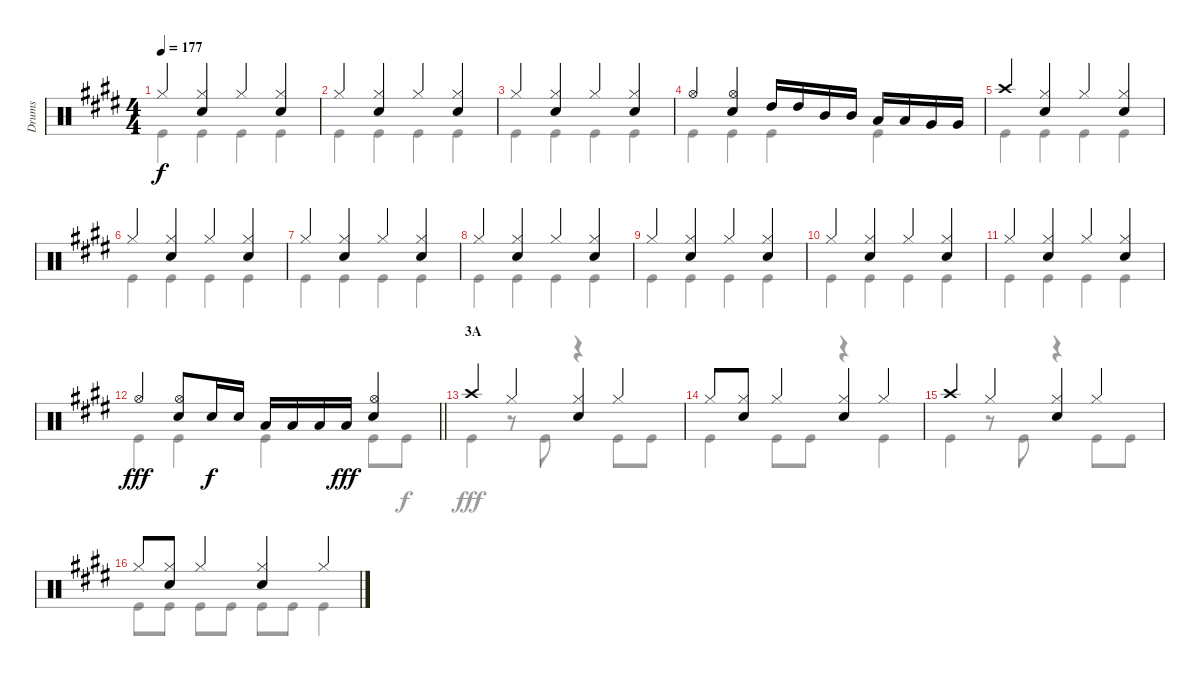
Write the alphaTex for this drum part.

\track ("Drums" "Drums") {instrument percussion}
\staff {score}
\articulation defaults
\voice
\ts (4 4)
\tempo 177
\clef neutral
\ks e "Hi-Hat (closed)".4{dy f}
("Hi-Hat (closed)" "Snare (hit) 2").4 "Hi-Hat (closed)".4 ("Hi-Hat (closed)" "Snare (hit) 2").4 |
"Hi-Hat (closed)".4 ("Hi-Hat (closed)" "Snare (hit) 2").4 "Hi-Hat (closed)".4 ("Hi-Hat (closed)" "Snare (hit) 2").4 |
"Hi-Hat (closed)".4 ("Hi-Hat (closed)" "Snare (hit) 2").4 "Hi-Hat (closed)".4 ("Hi-Hat (closed)" "Snare (hit) 2").4 |
"Hi-Hat (open)".4 ("Hi-Hat (open)" "Snare (hit) 2").4 "High Tom (hit)".16 "High Tom (hit)".16 "Mid Tom (hit)".16 "Mid Tom (hit)".16 "Low Tom (hit)".16 "Low Tom (hit)".16 "Very Low Tom (hit)".16 "Very Low Tom (hit)".16 |
"Crash high (hit)".4 ("Hi-Hat (closed)" "Snare (hit) 2").4 "Hi-Hat (closed)".4 ("Hi-Hat (closed)" "Snare (hit) 2").4 |
"Hi-Hat (closed)".4 ("Hi-Hat (closed)" "Snare (hit) 2").4 "Hi-Hat (closed)".4 ("Hi-Hat (closed)" "Snare (hit) 2").4 |
"Hi-Hat (closed)".4 ("Hi-Hat (closed)" "Snare (hit) 2").4 "Hi-Hat (closed)".4 ("Hi-Hat (closed)" "Snare (hit) 2").4 |
"Hi-Hat (closed)".4 ("Hi-Hat (closed)" "Snare (hit) 2").4 "Hi-Hat (closed)".4 ("Hi-Hat (closed)" "Snare (hit) 2").4 |
"Hi-Hat (closed)".4 ("Hi-Hat (closed)" "Snare (hit) 2").4 "Hi-Hat (closed)".4 ("Hi-Hat (closed)" "Snare (hit) 2").4 |
"Hi-Hat (closed)".4 ("Hi-Hat (closed)" "Snare (hit) 2").4 "Hi-Hat (closed)".4 ("Hi-Hat (closed)" "Snare (hit) 2").4 |
"Hi-Hat (closed)".4 ("Hi-Hat (closed)" "Snare (hit) 2").4 "Hi-Hat (closed)".4 ("Hi-Hat (closed)" "Snare (hit) 2").4 |
\barLineRight lightlight "Hi-Hat (open)".4{dy fff}
("Hi-Hat (open)" "Snare (hit) 2").8 "Snare (hit) 2".16{dy f} "Snare (hit) 2".16 "Low Tom (hit)".16 "Low Tom (hit)".16 "Low Tom (hit)".16 "Low Tom (hit)".16{dy fff} ("Hi-Hat (open)" "Snare (hit) 2").4 |
\section ("" "3A")
"Crash high (hit)".4 "Hi-Hat (closed)".4 ("Hi-Hat (closed)" "Snare (hit) 2").4 "Hi-Hat (closed)".4 |
"Hi-Hat (closed)".8 ("Hi-Hat (closed)" "Snare (hit) 2").8 "Hi-Hat (closed)".4 ("Hi-Hat (closed)" "Snare (hit) 2").4 "Hi-Hat (closed)".4 |
"Crash high (hit)".4 "Hi-Hat (closed)".4 ("Hi-Hat (closed)" "Snare (hit) 2").4 "Hi-Hat (closed)".4 |
"Hi-Hat (closed)".8 ("Hi-Hat (closed)" "Snare (hit) 2").8 "Hi-Hat (closed)".4 ("Hi-Hat (closed)" "Snare (hit) 2").4 "Hi-Hat (closed)".4
\voice
\clef neutral
\ottava regular
\simile none
\ks e "Kick (hit)".4{dy f} "Kick (hit)".4 "Kick (hit)".4 "Kick (hit)".4
|
"Kick (hit)".4 "Kick (hit)".4 "Kick (hit)".4 "Kick (hit)".4 |
"Kick (hit)".4 "Kick (hit)".4 "Kick (hit)".4 "Kick (hit)".4 |
"Kick (hit)".4 "Kick (hit)".4 "Kick (hit)".4 "Kick (hit)".4 |
"Kick (hit)".4 "Kick (hit)".4 "Kick (hit)".4 "Kick (hit)".4 |
"Kick (hit)".4 "Kick (hit)".4 "Kick (hit)".4 "Kick (hit)".4 |
"Kick (hit)".4 "Kick (hit)".4 "Kick (hit)".4 "Kick (hit)".4 |
"Kick (hit)".4 "Kick (hit)".4 "Kick (hit)".4 "Kick (hit)".4 |
"Kick (hit)".4 "Kick (hit)".4 "Kick (hit)".4 "Kick (hit)".4 |
"Kick (hit)".4 "Kick (hit)".4 "Kick (hit)".4 "Kick (hit)".4 |
"Kick (hit)".4 "Kick (hit)".4 "Kick (hit)".4 "Kick (hit)".4 |
\barLineRight lightlight "Kick (hit)".4{dy fff} "Kick (hit)".4 "Kick (hit)".4 "Kick (hit)".8 "Kick (hit)".8{dy f}
|
"Kick (hit)".4{dy fff} r.8 "Kick (hit)".8 r.4 "Kick (hit)".8 "Kick (hit)".8 |
"Kick (hit)".4 "Kick (hit)".8 "Kick (hit)".8 r.4 "Kick (hit)".4 |
"Kick (hit)".4 r.8 "Kick (hit)".8 r.4 "Kick (hit)".8 "Kick (hit)".8 |
"Kick (hit)".8 "Kick (hit)".8 "Kick (hit)".8 "Kick (hit)".8 "Kick (hit)".8 "Kick (hit)".8 "Kick (hit)".4
